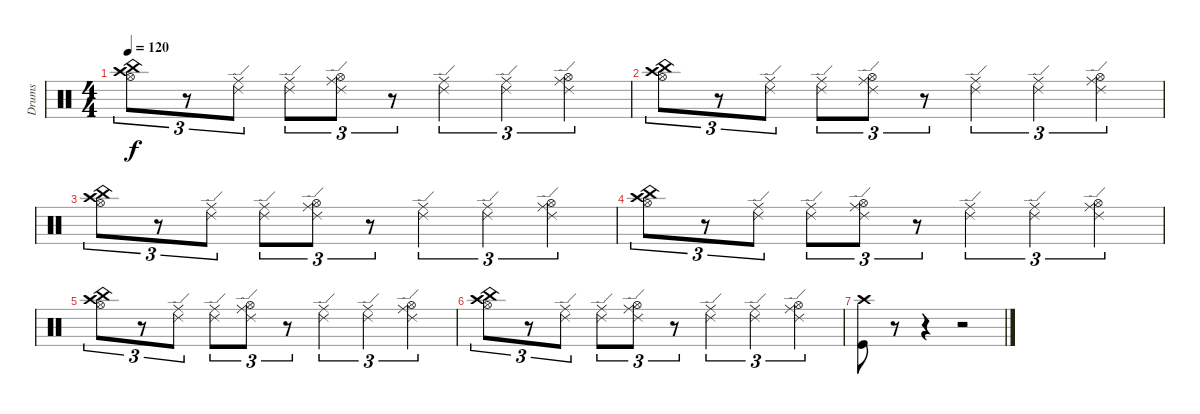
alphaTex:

\track ("Drums" "Drums") {instrument percussion}
\staff {score}
\articulation defaults
\ts (4 4)
\tempo 120
\clef neutral
\ks c
("Hi-Hat (open)" "Crash high (hit)" "China (hit)").8{tu (3 2) dy f} r.8{tu (3 2)} ("Ride (middle)" "Ride (edge) 2").8{tu (3 2)} ("Ride (middle)" "Ride (edge) 2").8{tu (3 2)} ("Hi-Hat (open)" "Ride (middle)" "Ride (edge) 2").8{tu (3 2)} r.8{tu (3 2)} ("Ride (middle)" "Ride (edge) 2").4{tu (3 2)} ("Ride (middle)" "Ride (edge) 2").4{tu (3 2)} ("Hi-Hat (open)" "Ride (middle)" "Ride (edge) 2").4{tu (3 2)} |
("Hi-Hat (open)" "Crash high (hit)" "China (hit)").8{tu (3 2)} r.8{tu (3 2)} ("Ride (middle)" "Ride (edge) 2").8{tu (3 2)} ("Ride (middle)" "Ride (edge) 2").8{tu (3 2)} ("Hi-Hat (open)" "Ride (middle)" "Ride (edge) 2").8{tu (3 2)} r.8{tu (3 2)} ("Ride (middle)" "Ride (edge) 2").4{tu (3 2)} ("Ride (middle)" "Ride (edge) 2").4{tu (3 2)} ("Hi-Hat (open)" "Ride (middle)" "Ride (edge) 2").4{tu (3 2)} |
("Hi-Hat (open)" "Crash high (hit)" "China (hit)").8{tu (3 2)} r.8{tu (3 2)} ("Ride (middle)" "Ride (edge) 2").8{tu (3 2)} ("Ride (middle)" "Ride (edge) 2").8{tu (3 2)} ("Hi-Hat (open)" "Ride (middle)" "Ride (edge) 2").8{tu (3 2)} r.8{tu (3 2)} ("Ride (middle)" "Ride (edge) 2").4{tu (3 2)} ("Ride (middle)" "Ride (edge) 2").4{tu (3 2)} ("Hi-Hat (open)" "Ride (middle)" "Ride (edge) 2").4{tu (3 2)} |
("Hi-Hat (open)" "Crash high (hit)" "China (hit)").8{tu (3 2)} r.8{tu (3 2)} ("Ride (middle)" "Ride (edge) 2").8{tu (3 2)} ("Ride (middle)" "Ride (edge) 2").8{tu (3 2)} ("Hi-Hat (open)" "Ride (middle)" "Ride (edge) 2").8{tu (3 2)} r.8{tu (3 2)} ("Ride (middle)" "Ride (edge) 2").4{tu (3 2)} ("Ride (middle)" "Ride (edge) 2").4{tu (3 2)} ("Hi-Hat (open)" "Ride (middle)" "Ride (edge) 2").4{tu (3 2)} |
("Hi-Hat (open)" "Crash high (hit)" "China (hit)").8{tu (3 2)} r.8{tu (3 2)} ("Ride (middle)" "Ride (edge) 2").8{tu (3 2)} ("Ride (middle)" "Ride (edge) 2").8{tu (3 2)} ("Hi-Hat (open)" "Ride (middle)" "Ride (edge) 2").8{tu (3 2)} r.8{tu (3 2)} ("Ride (middle)" "Ride (edge) 2").4{tu (3 2)} ("Ride (middle)" "Ride (edge) 2").4{tu (3 2)} ("Hi-Hat (open)" "Ride (middle)" "Ride (edge) 2").4{tu (3 2)} |
("Hi-Hat (open)" "Crash high (hit)" "China (hit)").8{tu (3 2)} r.8{tu (3 2)} ("Ride (middle)" "Ride (edge) 2").8{tu (3 2)} ("Ride (middle)" "Ride (edge) 2").8{tu (3 2)} ("Hi-Hat (open)" "Ride (middle)" "Ride (edge) 2").8{tu (3 2)} r.8{tu (3 2)} ("Ride (middle)" "Ride (edge) 2").4{tu (3 2)} ("Ride (middle)" "Ride (edge) 2").4{tu (3 2)} ("Hi-Hat (open)" "Ride (middle)" "Ride (edge) 2").4{tu (3 2)} |
("Crash high (hit)" "Kick (hit)").8 r.8 r.4 r.2
